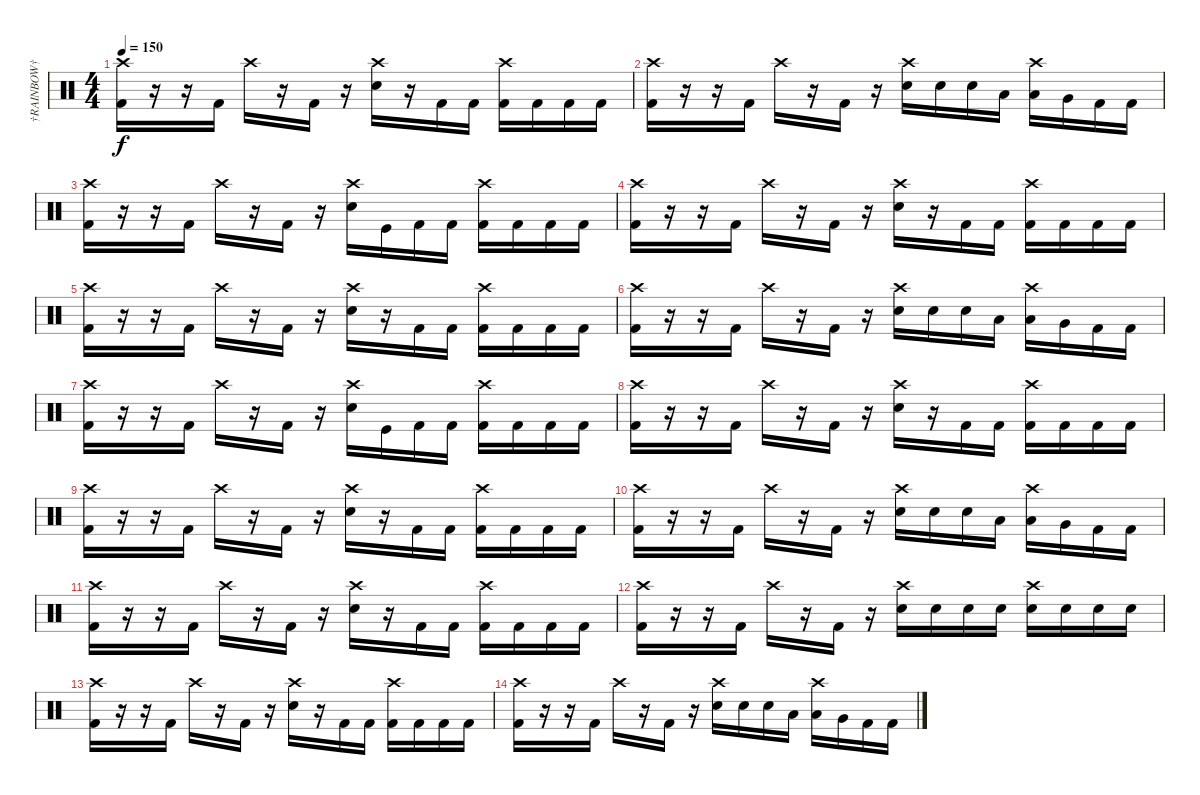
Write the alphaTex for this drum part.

\track ("†RAINBOW†" "†RAINBOW†") {instrument percussion}
\staff {score}
\articulation defaults
\ts (4 4)
\tempo 150
\clef neutral
\ks c
("Crash high (hit)" "Kick (hit) 2").16{dy f} r.16 r.16 "Kick (hit) 2".16 "Crash high (hit)".16 r.16 "Kick (hit) 2".16 r.16 ("Crash high (hit)" "Electric Snare (hit)").16 r.16 "Kick (hit) 2".16 "Kick (hit) 2".16 ("Crash high (hit)" "Kick (hit) 2").16 "Kick (hit) 2".16 "Kick (hit) 2".16 "Kick (hit) 2".16 |
("Crash high (hit)" "Kick (hit) 2").16 r.16 r.16 "Kick (hit) 2".16 "Crash high (hit)".16 r.16 "Kick (hit) 2".16 r.16 ("Crash high (hit)" "Electric Snare (hit)").16 "Electric Snare (hit)".16 "Electric Snare (hit)".16 "Low Tom (hit)".16 ("Crash high (hit)" "Low Tom (hit)").16 "Very Low Tom (hit)".16 "Kick (hit) 2".16 "Kick (hit) 2".16 |
("Crash high (hit)" "Kick (hit) 2").16 r.16 r.16 "Kick (hit) 2".16 "Crash high (hit)".16 r.16 "Kick (hit) 2".16 r.16 ("Crash high (hit)" "Electric Snare (hit)").16 "Kick (hit)".16 "Kick (hit) 2".16 "Kick (hit) 2".16 ("Crash high (hit)" "Kick (hit) 2").16 "Kick (hit) 2".16 "Kick (hit) 2".16 "Kick (hit) 2".16 |
("Crash high (hit)" "Kick (hit) 2").16 r.16 r.16 "Kick (hit) 2".16 "Crash high (hit)".16 r.16 "Kick (hit) 2".16 r.16 ("Crash high (hit)" "Electric Snare (hit)").16 r.16 "Kick (hit) 2".16 "Kick (hit) 2".16 ("Crash high (hit)" "Kick (hit) 2").16 "Kick (hit) 2".16 "Kick (hit) 2".16 "Kick (hit) 2".16 |
("Crash high (hit)" "Kick (hit) 2").16 r.16 r.16 "Kick (hit) 2".16 "Crash high (hit)".16 r.16 "Kick (hit) 2".16 r.16 ("Crash high (hit)" "Electric Snare (hit)").16 r.16 "Kick (hit) 2".16 "Kick (hit) 2".16 ("Crash high (hit)" "Kick (hit) 2").16 "Kick (hit) 2".16 "Kick (hit) 2".16 "Kick (hit) 2".16 |
("Crash high (hit)" "Kick (hit) 2").16 r.16 r.16 "Kick (hit) 2".16 "Crash high (hit)".16 r.16 "Kick (hit) 2".16 r.16 ("Crash high (hit)" "Electric Snare (hit)").16 "Electric Snare (hit)".16 "Electric Snare (hit)".16 "Low Tom (hit)".16 ("Crash high (hit)" "Low Tom (hit)").16 "Very Low Tom (hit)".16 "Kick (hit) 2".16 "Kick (hit) 2".16 |
("Crash high (hit)" "Kick (hit) 2").16 r.16 r.16 "Kick (hit) 2".16 "Crash high (hit)".16 r.16 "Kick (hit) 2".16 r.16 ("Crash high (hit)" "Electric Snare (hit)").16 "Kick (hit)".16 "Kick (hit) 2".16 "Kick (hit) 2".16 ("Crash high (hit)" "Kick (hit) 2").16 "Kick (hit) 2".16 "Kick (hit) 2".16 "Kick (hit) 2".16 |
("Crash high (hit)" "Kick (hit) 2").16 r.16 r.16 "Kick (hit) 2".16 "Crash high (hit)".16 r.16 "Kick (hit) 2".16 r.16 ("Crash high (hit)" "Electric Snare (hit)").16 r.16 "Kick (hit) 2".16 "Kick (hit) 2".16 ("Crash high (hit)" "Kick (hit) 2").16 "Kick (hit) 2".16 "Kick (hit) 2".16 "Kick (hit) 2".16 |
("Crash high (hit)" "Kick (hit) 2").16 r.16 r.16 "Kick (hit) 2".16 "Crash high (hit)".16 r.16 "Kick (hit) 2".16 r.16 ("Crash high (hit)" "Electric Snare (hit)").16 r.16 "Kick (hit) 2".16 "Kick (hit) 2".16 ("Crash high (hit)" "Kick (hit) 2").16 "Kick (hit) 2".16 "Kick (hit) 2".16 "Kick (hit) 2".16 |
("Crash high (hit)" "Kick (hit) 2").16 r.16 r.16 "Kick (hit) 2".16 "Crash high (hit)".16 r.16 "Kick (hit) 2".16 r.16 ("Crash high (hit)" "Electric Snare (hit)").16 "Electric Snare (hit)".16 "Electric Snare (hit)".16 "Low Tom (hit)".16 ("Crash high (hit)" "Low Tom (hit)").16 "Very Low Tom (hit)".16 "Kick (hit) 2".16 "Kick (hit) 2".16 |
("Crash high (hit)" "Kick (hit) 2").16 r.16 r.16 "Kick (hit) 2".16 "Crash high (hit)".16 r.16 "Kick (hit) 2".16 r.16 ("Crash high (hit)" "Electric Snare (hit)").16 r.16 "Kick (hit) 2".16 "Kick (hit) 2".16 ("Crash high (hit)" "Kick (hit) 2").16 "Kick (hit) 2".16 "Kick (hit) 2".16 "Kick (hit) 2".16 |
("Crash high (hit)" "Kick (hit) 2").16 r.16 r.16 "Kick (hit) 2".16 "Crash high (hit)".16 r.16 "Kick (hit) 2".16 r.16 ("Crash high (hit)" "Electric Snare (hit)").16 "Electric Snare (hit)".16 "Electric Snare (hit)".16 "Electric Snare (hit)".16 ("Crash high (hit)" "Electric Snare (hit)").16 "Electric Snare (hit)".16 "Electric Snare (hit)".16 "Electric Snare (hit)".16 |
("Crash high (hit)" "Kick (hit) 2").16 r.16 r.16 "Kick (hit) 2".16 "Crash high (hit)".16 r.16 "Kick (hit) 2".16 r.16 ("Crash high (hit)" "Electric Snare (hit)").16 r.16 "Kick (hit) 2".16 "Kick (hit) 2".16 ("Crash high (hit)" "Kick (hit) 2").16 "Kick (hit) 2".16 "Kick (hit) 2".16 "Kick (hit) 2".16 |
("Crash high (hit)" "Kick (hit) 2").16 r.16 r.16 "Kick (hit) 2".16 "Crash high (hit)".16 r.16 "Kick (hit) 2".16 r.16 ("Crash high (hit)" "Electric Snare (hit)").16 "Electric Snare (hit)".16 "Electric Snare (hit)".16 "Low Tom (hit)".16 ("Crash high (hit)" "Low Tom (hit)").16 "Very Low Tom (hit)".16 "Kick (hit) 2".16 "Kick (hit) 2".16
